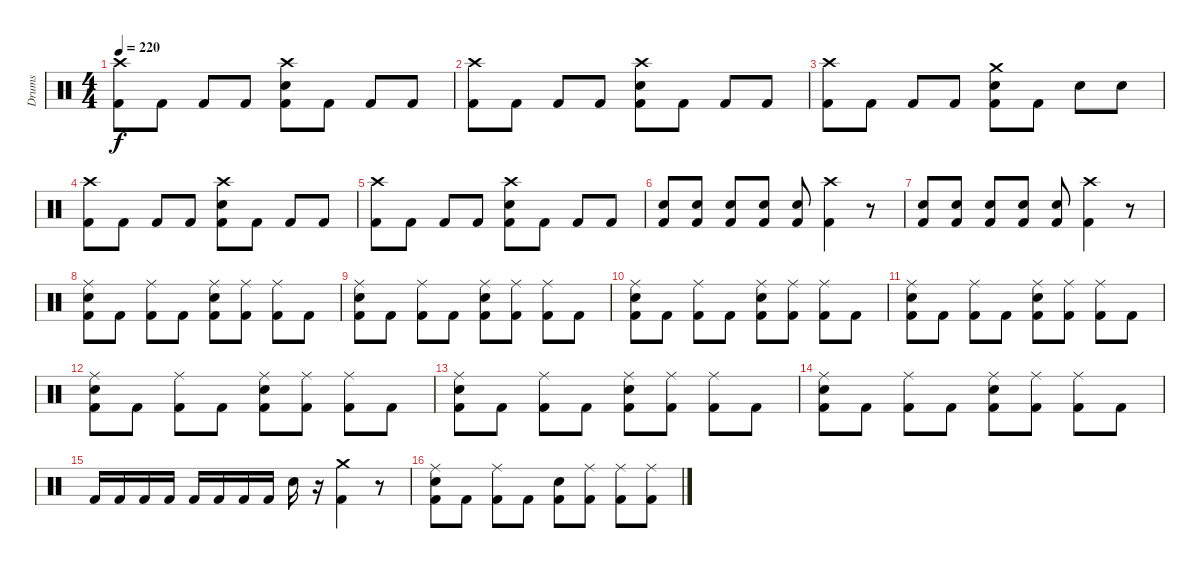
\track ("Drums" "Drums") {instrument percussion}
\staff {score}
\articulation defaults
\ts (4 4)
\tempo 220
\clef neutral
\ks c
("Crash high (hit)" "Kick (hit) 2").8{dy f} "Kick (hit) 2".8 "Kick (hit) 2".8 "Kick (hit) 2".8 ("Crash high (hit)" "Snare (hit) 2" "Kick (hit) 2").8 "Kick (hit) 2".8 "Kick (hit) 2".8 "Kick (hit) 2".8 |
("Crash high (hit)" "Kick (hit) 2").8 "Kick (hit) 2".8 "Kick (hit) 2".8 "Kick (hit) 2".8 ("Crash high (hit)" "Snare (hit) 2" "Kick (hit) 2").8 "Kick (hit) 2".8 "Kick (hit) 2".8 "Kick (hit) 2".8 |
("Crash high (hit)" "Kick (hit) 2").8 "Kick (hit) 2".8 "Kick (hit) 2".8 "Kick (hit) 2".8 ("Crash medium (hit)" "Snare (hit) 2" "Kick (hit) 2").8 "Kick (hit) 2".8 "Snare (hit) 2".8 "Snare (hit) 2".8 |
("Crash high (hit)" "Kick (hit) 2").8 "Kick (hit) 2".8 "Kick (hit) 2".8 "Kick (hit) 2".8 ("Crash high (hit)" "Snare (hit) 2" "Kick (hit) 2").8 "Kick (hit) 2".8 "Kick (hit) 2".8 "Kick (hit) 2".8 |
("Crash high (hit)" "Kick (hit) 2").8 "Kick (hit) 2".8 "Kick (hit) 2".8 "Kick (hit) 2".8 ("Crash high (hit)" "Snare (hit) 2" "Kick (hit) 2").8 "Kick (hit) 2".8 "Kick (hit) 2".8 "Kick (hit) 2".8 |
("Snare (hit) 2" "Kick (hit) 2").8 ("Snare (hit) 2" "Kick (hit) 2").8 ("Snare (hit) 2" "Kick (hit) 2").8 ("Snare (hit) 2" "Kick (hit) 2").8 ("Snare (hit) 2" "Kick (hit) 2").8 ("Crash high (hit)" "Kick (hit) 2").4 r.8 |
("Snare (hit) 2" "Kick (hit) 2").8 ("Snare (hit) 2" "Kick (hit) 2").8 ("Snare (hit) 2" "Kick (hit) 2").8 ("Snare (hit) 2" "Kick (hit) 2").8 ("Snare (hit) 2" "Kick (hit) 2").8 ("Crash high (hit)" "Kick (hit) 2").4 r.8 |
("Ride (middle)" "Snare (hit) 2" "Kick (hit) 2").8 "Kick (hit) 2".8 ("Ride (middle)" "Kick (hit) 2").8 "Kick (hit) 2".8 ("Ride (middle)" "Snare (hit) 2" "Kick (hit) 2").8 ("Ride (middle)" "Kick (hit) 2").8 ("Ride (middle)" "Kick (hit) 2").8 "Kick (hit) 2".8 |
("Ride (middle)" "Snare (hit) 2" "Kick (hit) 2").8 "Kick (hit) 2".8 ("Ride (middle)" "Kick (hit) 2").8 "Kick (hit) 2".8 ("Ride (middle)" "Snare (hit) 2" "Kick (hit) 2").8 ("Ride (middle)" "Kick (hit) 2").8 ("Ride (middle)" "Kick (hit) 2").8 "Kick (hit) 2".8 |
("Ride (middle)" "Snare (hit) 2" "Kick (hit) 2").8 "Kick (hit) 2".8 ("Ride (middle)" "Kick (hit) 2").8 "Kick (hit) 2".8 ("Ride (middle)" "Snare (hit) 2" "Kick (hit) 2").8 ("Ride (middle)" "Kick (hit) 2").8 ("Ride (middle)" "Kick (hit) 2").8 "Kick (hit) 2".8 |
("Ride (middle)" "Snare (hit) 2" "Kick (hit) 2").8 "Kick (hit) 2".8 ("Ride (middle)" "Kick (hit) 2").8 "Kick (hit) 2".8 ("Ride (middle)" "Snare (hit) 2" "Kick (hit) 2").8 ("Ride (middle)" "Kick (hit) 2").8 ("Ride (middle)" "Kick (hit) 2").8 "Kick (hit) 2".8 |
("Ride (middle)" "Snare (hit) 2" "Kick (hit) 2").8 "Kick (hit) 2".8 ("Ride (middle)" "Kick (hit) 2").8 "Kick (hit) 2".8 ("Ride (middle)" "Snare (hit) 2" "Kick (hit) 2").8 ("Ride (middle)" "Kick (hit) 2").8 ("Ride (middle)" "Kick (hit) 2").8 "Kick (hit) 2".8 |
("Ride (middle)" "Snare (hit) 2" "Kick (hit) 2").8 "Kick (hit) 2".8 ("Ride (middle)" "Kick (hit) 2").8 "Kick (hit) 2".8 ("Ride (middle)" "Snare (hit) 2" "Kick (hit) 2").8 ("Ride (middle)" "Kick (hit) 2").8 ("Ride (middle)" "Kick (hit) 2").8 "Kick (hit) 2".8 |
("Ride (middle)" "Snare (hit) 2" "Kick (hit) 2").8 "Kick (hit) 2".8 ("Ride (middle)" "Kick (hit) 2").8 "Kick (hit) 2".8 ("Ride (middle)" "Snare (hit) 2" "Kick (hit) 2").8 ("Ride (middle)" "Kick (hit) 2").8 ("Ride (middle)" "Kick (hit) 2").8 "Kick (hit) 2".8 |
"Kick (hit) 2".16 "Kick (hit) 2".16 "Kick (hit) 2".16 "Kick (hit) 2".16 "Kick (hit) 2".16 "Kick (hit) 2".16 "Kick (hit) 2".16 "Kick (hit) 2".16 "Snare (hit) 2".16 r.16 ("Crash medium (hit)" "Kick (hit) 2").4 r.8 |
("Ride (middle)" "Snare (hit) 2" "Kick (hit) 2").8 "Kick (hit) 2".8 ("Ride (middle)" "Kick (hit) 2").8 "Kick (hit) 2".8 ("Snare (hit) 2" "Kick (hit) 2").8 ("Ride (middle)" "Kick (hit) 2").8 ("Ride (middle)" "Kick (hit) 2").8 ("Ride (middle)" "Kick (hit) 2").8
